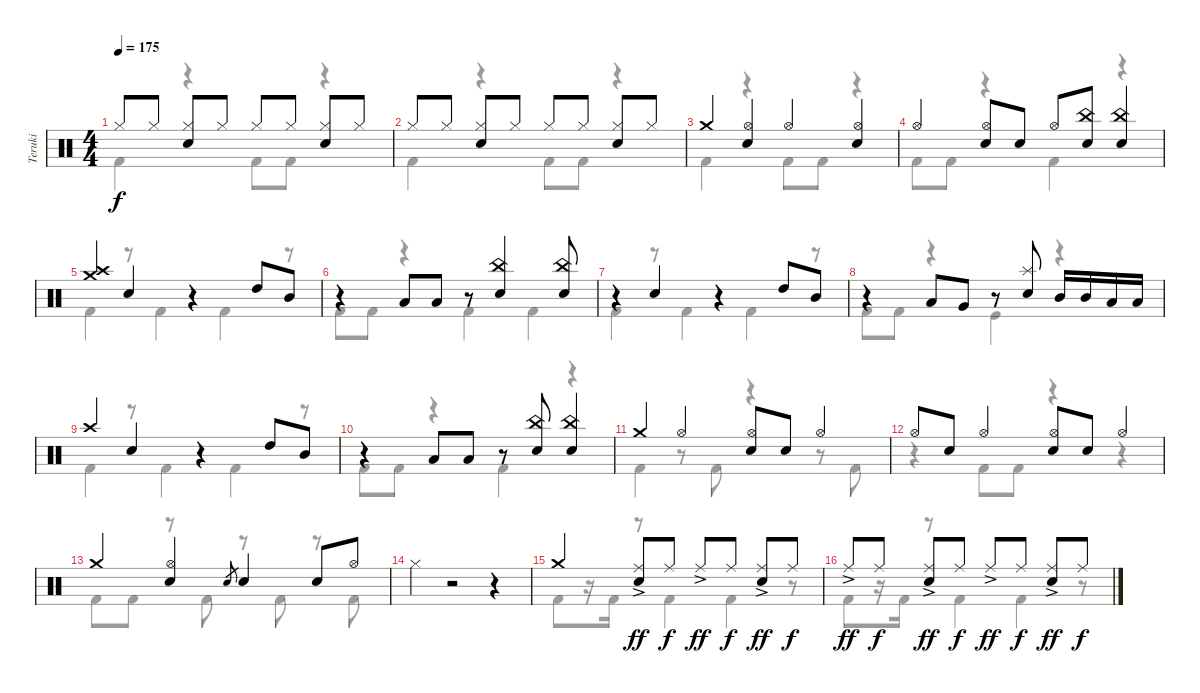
\track ("Teruki" "Teruki") {instrument percussion}
\staff {score}
\articulation defaults
\voice
\ts (4 4)
\tempo 175
\clef neutral
\ks c "Hi-Hat (closed)".8{dy f} "Hi-Hat (closed)".8
("Hi-Hat (closed)" "Snare (hit) 2").8 "Hi-Hat (closed)".8 "Hi-Hat (closed)".8 "Hi-Hat (closed)".8 ("Hi-Hat (closed)" "Snare (hit) 2").8 "Hi-Hat (closed)".8 |
"Hi-Hat (closed)".8 "Hi-Hat (closed)".8 ("Hi-Hat (closed)" "Snare (hit) 2").8 "Hi-Hat (closed)".8 "Hi-Hat (closed)".8 "Hi-Hat (closed)".8 ("Hi-Hat (closed)" "Snare (hit) 2").8 "Hi-Hat (closed)".8 |
"Crash medium (hit)".4 ("Hi-Hat (open)" "Snare (hit) 2").4 "Hi-Hat (open)".4 ("Hi-Hat (open)" "Snare (hit) 2").4 |
"Hi-Hat (open)".4 ("Hi-Hat (open)" "Snare (hit) 2").8 "Snare (hit) 2".8 "Hi-Hat (open)".8 ("China (hit)" "Snare (hit) 2").8 ("China (hit)" "Snare (hit) 2").4 |
("Crash medium (hit)" "Crash high (hit)").4 "Snare (hit) 2".4 r.4 "High Tom (hit)".8 "Mid Tom (hit)".8 |
r.4 "Low Tom (hit)".8 "Low Tom (hit)".8 r.8 ("China (hit)" "Snare (hit) 2").4 ("China (hit)" "Snare (hit) 2").8 |
r.4 "Snare (hit) 2".4 r.4 "High Tom (hit)".8 "Mid Tom (hit)".8 |
r.4 "Low Tom (hit)".8 "Very Low Tom (hit)".8 r.8 ("Splash (hit)" "Snare (hit) 2").8 "Mid Tom (hit)".16 "Mid Tom (hit)".16 "Low Tom (hit)".16 "Low Tom (hit)".16 |
"Crash high (hit)".4 "Snare (hit) 2".4 r.4 "High Tom (hit)".8 "Mid Tom (hit)".8 |
r.4 "Low Tom (hit)".8 "Low Tom (hit)".8 r.8 ("China (hit)" "Snare (hit) 2").8 ("China (hit)" "Snare (hit) 2").4 |
"Crash medium (hit)".4 "Hi-Hat (open)".4 ("Hi-Hat (open)" "Snare (hit) 2").8 "Snare (hit) 2".8 "Hi-Hat (open)".4 |
"Hi-Hat (open)".8 "Snare (hit) 2".8 "Hi-Hat (open)".4 ("Hi-Hat (open)" "Snare (hit) 2").8 "Snare (hit) 2".8 "Hi-Hat (open)".4 |
"Crash medium (hit)".4 ("Hi-Hat (open)" "Snare (hit) 2").4 "Snare (hit) 2".8{gr} "Snare (hit) 2".4 "Snare (hit) 2".8 "Hi-Hat (open)".8 |
"Hi-Hat (closed)".4 r.2 r.4 |
"Crash medium (hit)".4 ("Ride (middle)"{ac} "Snare (hit) 2").8{dy ff} "Ride (middle)".8{dy f} "Ride (middle)"{ac}.8{dy ff} "Ride (middle)".8{dy f} ("Ride (middle)"{ac} "Snare (hit) 2").8{dy ff} "Ride (middle)".8{dy f} |
"Ride (middle)"{ac}.8{dy ff} "Ride (middle)".8{dy f} ("Ride (middle)"{ac} "Snare (hit) 2").8{dy ff} "Ride (middle)".8{dy f} "Ride (middle)"{ac}.8{dy ff} "Ride (middle)".8{dy f} ("Ride (middle)"{ac} "Snare (hit) 2").8{dy ff} "Ride (middle)".8{dy f}
\voice
\clef neutral
\ottava regular
\simile none
\ks c "Kick (hit) 2".4{dy f}
r.4 "Kick (hit) 2".8 "Kick (hit) 2".8 r.4 |
"Kick (hit) 2".4 r.4 "Kick (hit) 2".8 "Kick (hit) 2".8 r.4 |
"Kick (hit) 2".4 r.4 "Kick (hit) 2".8 "Kick (hit) 2".8 r.4 |
"Kick (hit) 2".8 "Kick (hit) 2".8 r.4 "Kick (hit) 2".4 r.4 |
"Kick (hit) 2".4 r.8 "Kick (hit) 2".4 "Kick (hit) 2".4 r.8 |
"Kick (hit) 2".8 "Kick (hit) 2".8 r.4 "Kick (hit) 2".4 "Kick (hit) 2".4 |
"Kick (hit) 2".4 r.8 "Kick (hit) 2".4 "Kick (hit) 2".4 r.8 |
"Kick (hit) 2".8 "Kick (hit) 2".8 r.4 "Kick (hit)".4 r.4 |
"Kick (hit) 2".4 r.8 "Kick (hit) 2".4 "Kick (hit) 2".4 r.8 |
"Kick (hit) 2".8 "Kick (hit) 2".8 r.4 "Kick (hit) 2".4 r.4 |
"Kick (hit) 2".4 r.8 "Kick (hit) 2".8 r.4 r.8 "Kick (hit) 2".8 |
r.4 "Kick (hit) 2".8 "Kick (hit) 2".8 r.4 r.4 |
"Kick (hit) 2".8 "Kick (hit) 2".8 r.8 "Kick (hit) 2".8 r.8 "Kick (hit) 2".8 r.8 "Kick (hit) 2".8 |
|
"Kick (hit) 2".8 r.16 "Kick (hit) 2".16 r.8 "Kick (hit) 2".4 "Kick (hit) 2".4 r.8 |
"Kick (hit) 2".8 r.16 "Kick (hit) 2".16 r.8 "Kick (hit) 2".4 "Kick (hit) 2".4 r.8
